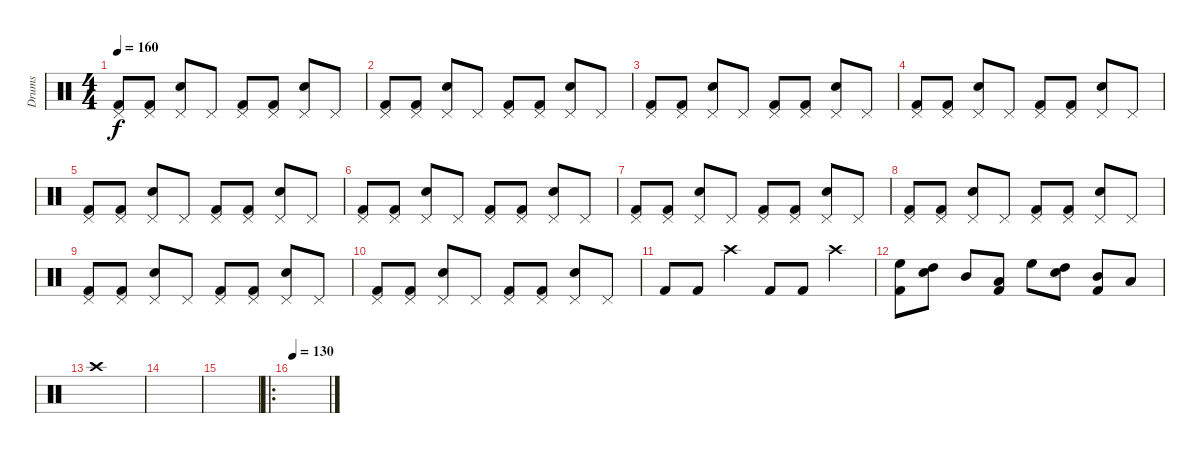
\track ("Drums" "Drums") {instrument percussion}
\staff {score}
\articulation defaults
\ts (4 4)
\tempo 160
\clef neutral
\ks c
("Pedal Hi-Hat (hit)" "Kick (hit) 2").8{dy f} ("Pedal Hi-Hat (hit)" "Kick (hit) 2").8 ("Pedal Hi-Hat (hit)" "Snare (hit) 2").8 "Pedal Hi-Hat (hit)".8 ("Pedal Hi-Hat (hit)" "Kick (hit) 2").8 ("Pedal Hi-Hat (hit)" "Kick (hit) 2").8 ("Pedal Hi-Hat (hit)" "Snare (hit) 2").8 "Pedal Hi-Hat (hit)".8 |
("Pedal Hi-Hat (hit)" "Kick (hit) 2").8 ("Pedal Hi-Hat (hit)" "Kick (hit) 2").8 ("Pedal Hi-Hat (hit)" "Snare (hit) 2").8 "Pedal Hi-Hat (hit)".8 ("Pedal Hi-Hat (hit)" "Kick (hit) 2").8 ("Pedal Hi-Hat (hit)" "Kick (hit) 2").8 ("Pedal Hi-Hat (hit)" "Snare (hit) 2").8 "Pedal Hi-Hat (hit)".8 |
("Pedal Hi-Hat (hit)" "Kick (hit) 2").8 ("Pedal Hi-Hat (hit)" "Kick (hit) 2").8 ("Pedal Hi-Hat (hit)" "Snare (hit) 2").8 "Pedal Hi-Hat (hit)".8 ("Pedal Hi-Hat (hit)" "Kick (hit) 2").8 ("Pedal Hi-Hat (hit)" "Kick (hit) 2").8 ("Pedal Hi-Hat (hit)" "Snare (hit) 2").8 "Pedal Hi-Hat (hit)".8 |
("Pedal Hi-Hat (hit)" "Kick (hit) 2").8 ("Pedal Hi-Hat (hit)" "Kick (hit) 2").8 ("Pedal Hi-Hat (hit)" "Snare (hit) 2").8 "Pedal Hi-Hat (hit)".8 ("Pedal Hi-Hat (hit)" "Kick (hit) 2").8 ("Pedal Hi-Hat (hit)" "Kick (hit) 2").8 ("Pedal Hi-Hat (hit)" "Snare (hit) 2").8 "Pedal Hi-Hat (hit)".8 |
("Pedal Hi-Hat (hit)" "Kick (hit) 2").8 ("Pedal Hi-Hat (hit)" "Kick (hit) 2").8 ("Pedal Hi-Hat (hit)" "Snare (hit) 2").8 "Pedal Hi-Hat (hit)".8 ("Pedal Hi-Hat (hit)" "Kick (hit) 2").8 ("Pedal Hi-Hat (hit)" "Kick (hit) 2").8 ("Pedal Hi-Hat (hit)" "Snare (hit) 2").8 "Pedal Hi-Hat (hit)".8 |
("Pedal Hi-Hat (hit)" "Kick (hit) 2").8 ("Pedal Hi-Hat (hit)" "Kick (hit) 2").8 ("Pedal Hi-Hat (hit)" "Snare (hit) 2").8 "Pedal Hi-Hat (hit)".8 ("Pedal Hi-Hat (hit)" "Kick (hit) 2").8 ("Pedal Hi-Hat (hit)" "Kick (hit) 2").8 ("Pedal Hi-Hat (hit)" "Snare (hit) 2").8 "Pedal Hi-Hat (hit)".8 |
("Pedal Hi-Hat (hit)" "Kick (hit) 2").8 ("Pedal Hi-Hat (hit)" "Kick (hit) 2").8 ("Pedal Hi-Hat (hit)" "Snare (hit) 2").8 "Pedal Hi-Hat (hit)".8 ("Pedal Hi-Hat (hit)" "Kick (hit) 2").8 ("Pedal Hi-Hat (hit)" "Kick (hit) 2").8 ("Pedal Hi-Hat (hit)" "Snare (hit) 2").8 "Pedal Hi-Hat (hit)".8 |
("Pedal Hi-Hat (hit)" "Kick (hit) 2").8 ("Pedal Hi-Hat (hit)" "Kick (hit) 2").8 ("Pedal Hi-Hat (hit)" "Snare (hit) 2").8 "Pedal Hi-Hat (hit)".8 ("Pedal Hi-Hat (hit)" "Kick (hit) 2").8 ("Pedal Hi-Hat (hit)" "Kick (hit) 2").8 ("Pedal Hi-Hat (hit)" "Snare (hit) 2").8 "Pedal Hi-Hat (hit)".8 |
("Pedal Hi-Hat (hit)" "Kick (hit) 2").8 ("Pedal Hi-Hat (hit)" "Kick (hit) 2").8 ("Pedal Hi-Hat (hit)" "Snare (hit) 2").8 "Pedal Hi-Hat (hit)".8 ("Pedal Hi-Hat (hit)" "Kick (hit) 2").8 ("Pedal Hi-Hat (hit)" "Kick (hit) 2").8 ("Pedal Hi-Hat (hit)" "Snare (hit) 2").8 "Pedal Hi-Hat (hit)".8 |
("Pedal Hi-Hat (hit)" "Kick (hit) 2").8 ("Pedal Hi-Hat (hit)" "Kick (hit) 2").8 ("Pedal Hi-Hat (hit)" "Snare (hit) 2").8 "Pedal Hi-Hat (hit)".8 ("Pedal Hi-Hat (hit)" "Kick (hit) 2").8 ("Pedal Hi-Hat (hit)" "Kick (hit) 2").8 ("Pedal Hi-Hat (hit)" "Snare (hit) 2").8 "Pedal Hi-Hat (hit)".8 |
"Kick (hit) 2".8 "Kick (hit) 2".8 "Crash high (hit)".4 "Kick (hit) 2".8 "Kick (hit) 2".8 "Crash high (hit)".4 |
("Kick (hit) 2" "High Floor Tom (hit)").8 ("High Tom (hit)" "Snare (hit) 2").8 "Mid Tom (hit)".8 ("Kick (hit) 2" "Low Tom (hit)").8 "High Floor Tom (hit)".8 ("High Tom (hit)" "Snare (hit) 2").8 ("Kick (hit) 2" "Mid Tom (hit)").8 "Low Tom (hit)".8 |
"Crash high (hit)".1 |
|
|
\ro
\tempo 130
